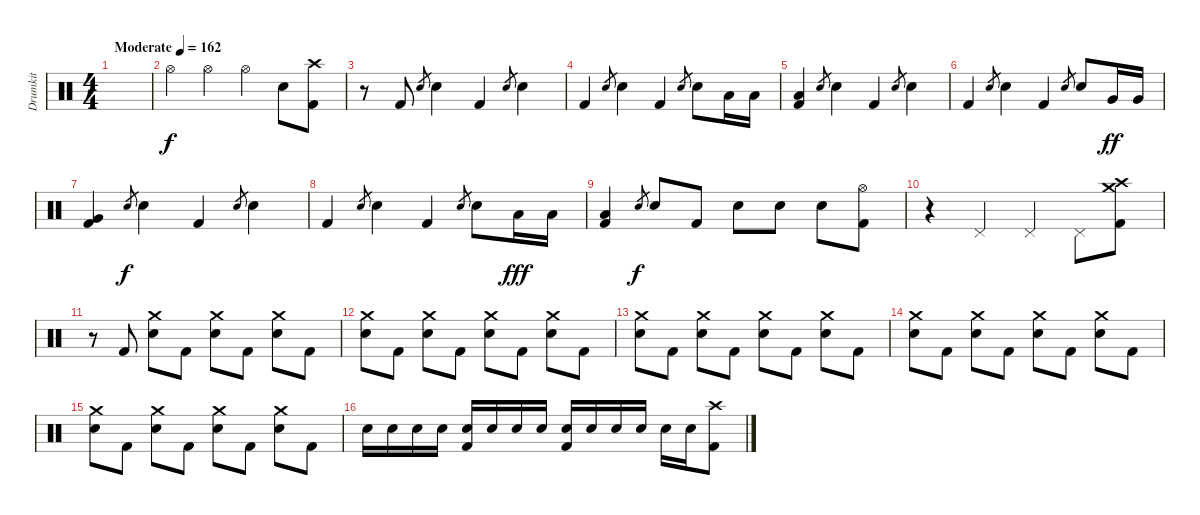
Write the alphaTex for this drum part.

\track ("Drumkit" "Drumkit") {instrument percussion}
\staff {score}
\articulation defaults
\ts (4 4)
\tempo (162 "Moderate")
\clef neutral
\ks c
|
"Hi-Hat (open)".4 "Hi-Hat (open)".4 "Hi-Hat (open)".4 "Electric Snare (hit)".8 ("Crash high (hit)" "Kick (hit) 2").8 |
r.8 "Kick (hit) 2".8 "Electric Snare (hit)".8{gr} "Electric Snare (hit)".4 "Kick (hit) 2".4 "Electric Snare (hit)".8{gr} "Electric Snare (hit)".4 |
"Kick (hit) 2".4 "Electric Snare (hit)".8{gr} "Electric Snare (hit)".4 "Kick (hit) 2".4 "Electric Snare (hit)".8{gr} "Electric Snare (hit)".8 "Low Tom (hit)".16 "Low Tom (hit)".16 |
("Low Tom (hit)" "Kick (hit) 2").4 "Electric Snare (hit)".8{gr} "Electric Snare (hit)".4 "Kick (hit) 2".4 "Electric Snare (hit)".8{gr} "Electric Snare (hit)".4 |
"Kick (hit) 2".4 "Electric Snare (hit)".8{gr} "Electric Snare (hit)".4 "Kick (hit) 2".4 "Electric Snare (hit)".8{gr} "Electric Snare (hit)".8 "Very Low Tom (hit)".16{dy ff} "Very Low Tom (hit)".16 |
("Very Low Tom (hit)" "Kick (hit) 2").4 "Electric Snare (hit)".8{gr dy f} "Electric Snare (hit)".4 "Kick (hit) 2".4 "Electric Snare (hit)".8{gr} "Electric Snare (hit)".4 |
"Kick (hit) 2".4 "Electric Snare (hit)".8{gr} "Electric Snare (hit)".4 "Kick (hit) 2".4 "Electric Snare (hit)".8{gr} "Electric Snare (hit)".8 "Low Floor Tom (hit)".16{dy fff} "Low Floor Tom (hit)".16 |
("Low Floor Tom (hit)" "Kick (hit) 2").4 "Electric Snare (hit)".8{gr dy f} "Electric Snare (hit)".8 "Kick (hit) 2".8 "Electric Snare (hit)".8 "Electric Snare (hit)".8 "Electric Snare (hit)".8 ("Hi-Hat (open)" "Kick (hit) 2").8 |
r.4 "Pedal Hi-Hat (hit)".4 "Pedal Hi-Hat (hit)".4 "Pedal Hi-Hat (hit)".8 ("Crash high (hit)" "Crash medium (hit)" "Kick (hit) 2").8 |
r.8 "Kick (hit) 2".8 ("Crash medium (hit)" "Electric Snare (hit)").8 "Kick (hit) 2".8 ("Crash medium (hit)" "Electric Snare (hit)").8 "Kick (hit) 2".8 ("Crash medium (hit)" "Electric Snare (hit)").8 "Kick (hit) 2".8 |
("Crash medium (hit)" "Electric Snare (hit)").8 "Kick (hit) 2".8 ("Crash medium (hit)" "Electric Snare (hit)").8 "Kick (hit) 2".8 ("Crash medium (hit)" "Electric Snare (hit)").8 "Kick (hit) 2".8 ("Crash medium (hit)" "Electric Snare (hit)").8 "Kick (hit) 2".8 |
("Crash medium (hit)" "Electric Snare (hit)").8 "Kick (hit) 2".8 ("Crash medium (hit)" "Electric Snare (hit)").8 "Kick (hit) 2".8 ("Crash medium (hit)" "Electric Snare (hit)").8 "Kick (hit) 2".8 ("Crash medium (hit)" "Electric Snare (hit)").8 "Kick (hit) 2".8 |
("Crash medium (hit)" "Electric Snare (hit)").8 "Kick (hit) 2".8 ("Crash medium (hit)" "Electric Snare (hit)").8 "Kick (hit) 2".8 ("Crash medium (hit)" "Electric Snare (hit)").8 "Kick (hit) 2".8 ("Crash medium (hit)" "Electric Snare (hit)").8 "Kick (hit) 2".8 |
("Crash medium (hit)" "Electric Snare (hit)").8 "Kick (hit) 2".8 ("Crash medium (hit)" "Electric Snare (hit)").8 "Kick (hit) 2".8 ("Crash medium (hit)" "Electric Snare (hit)").8 "Kick (hit) 2".8 ("Crash medium (hit)" "Electric Snare (hit)").8 "Kick (hit) 2".8 |
"Electric Snare (hit)".16 "Electric Snare (hit)".16 "Electric Snare (hit)".16 "Electric Snare (hit)".16 ("Electric Snare (hit)" "Kick (hit) 2").16 "Electric Snare (hit)".16 "Electric Snare (hit)".16 "Electric Snare (hit)".16 ("Electric Snare (hit)" "Kick (hit) 2").16 "Electric Snare (hit)".16 "Electric Snare (hit)".16 "Electric Snare (hit)".16 "Electric Snare (hit)".16 "Electric Snare (hit)".16 ("Crash high (hit)" "Kick (hit) 2").8
